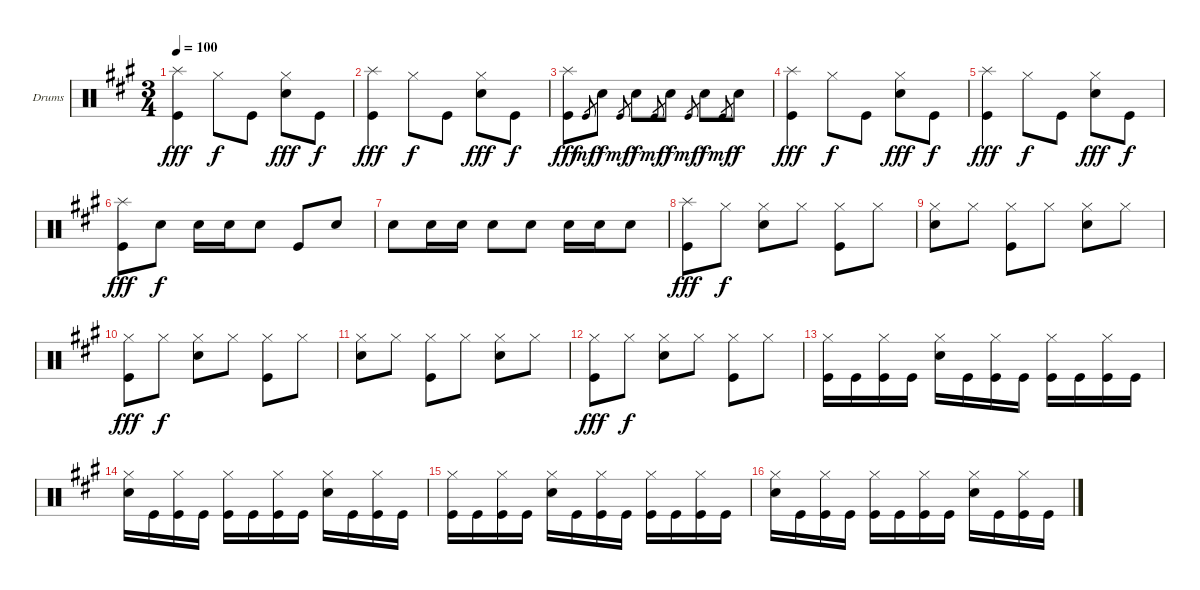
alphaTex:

\bracketExtendMode groupsimilarinstruments
\firstSystemTrackNameOrientation horizontal
\otherSystemsTrackNameOrientation horizontal
\track ("Drumkit" "Drums") {instrument percussion}
\staff {score}
\articulation defaults
\ts (3 4)
\tempo 100
\clef neutral
\scale
1.05801
\ks a
("Splash (hit)" "Kick (hit)").4{dy fff} "Hi-Hat (closed)".8{dy f} "Kick (hit)".8 ("Hi-Hat (closed)" "Snare (hit) 2").8{dy fff} "Kick (hit)".8{dy f} |
\scale
0.941992 ("Splash (hit)" "Kick (hit)").4{dy fff} "Hi-Hat (closed)".8{dy f} "Kick (hit)".8 ("Hi-Hat (closed)" "Snare (hit) 2").8{dy fff} "Kick (hit)".8{dy f} |
\scale
1.05801 ("Splash (hit)" "Kick (hit)").8{dy fff} "Kick (hit)".8{gr dy mf} "Snare (hit) 2".8{dy f} "Kick (hit)".8{gr dy mf} "Snare (hit) 2".8{dy f} "Kick (hit)".8{gr dy mf} "Snare (hit) 2".8{dy f} "Kick (hit)".8{gr dy mf} "Snare (hit) 2".8{dy f} "Kick (hit)".8{gr dy mf} "Snare (hit) 2".8{dy f} |
\scale
0.941992 ("Splash (hit)" "Kick (hit)").4{dy fff} "Hi-Hat (closed)".8{dy f} "Kick (hit)".8 ("Hi-Hat (closed)" "Snare (hit) 2").8{dy fff} "Kick (hit)".8{dy f} |
\scale
1.05801 ("Splash (hit)" "Kick (hit)").4{dy fff} "Hi-Hat (closed)".8{dy f} "Kick (hit)".8 ("Hi-Hat (closed)" "Snare (hit) 2").8{dy fff} "Kick (hit)".8{dy f} |
\scale
0.941992 ("Splash (hit)" "Kick (hit)").8{dy fff} "Snare (hit) 2".8{dy f} "Snare (hit) 2".16 "Snare (hit) 2".16 "Snare (hit) 2".8 "Kick (hit)".8 "Snare (hit) 2".8 |
\scale
1.05801 "Snare (hit) 2".8 "Snare (hit) 2".16 "Snare (hit) 2".16 "Snare (hit) 2".8 "Snare (hit) 2".8 "Snare (hit) 2".16 "Snare (hit) 2".16 "Snare (hit) 2".8 |
\scale
0.941992 ("Splash (hit)" "Kick (hit)").8{dy fff} "Hi-Hat (closed)".8{dy f} ("Hi-Hat (closed)" "Snare (hit) 2").8 "Hi-Hat (closed)".8 ("Hi-Hat (closed)" "Kick (hit)").8 "Hi-Hat (closed)".8 |
\scale
1.05801 ("Hi-Hat (closed)" "Snare (hit) 2").8 "Hi-Hat (closed)".8 ("Hi-Hat (closed)" "Kick (hit)").8 "Hi-Hat (closed)".8 ("Hi-Hat (closed)" "Snare (hit) 2").8 "Hi-Hat (closed)".8 |
\scale
0.941992 ("Hi-Hat (closed)" "Kick (hit)").8{dy fff} "Hi-Hat (closed)".8{dy f} ("Hi-Hat (closed)" "Snare (hit) 2").8 "Hi-Hat (closed)".8 ("Hi-Hat (closed)" "Kick (hit)").8 "Hi-Hat (closed)".8 |
\scale
1.05801 ("Hi-Hat (closed)" "Snare (hit) 2").8 "Hi-Hat (closed)".8 ("Hi-Hat (closed)" "Kick (hit)").8 "Hi-Hat (closed)".8 ("Hi-Hat (closed)" "Snare (hit) 2").8 "Hi-Hat (closed)".8 |
\scale
0.941992 ("Hi-Hat (closed)" "Kick (hit)").8{dy fff} "Hi-Hat (closed)".8{dy f} ("Hi-Hat (closed)" "Snare (hit) 2").8 "Hi-Hat (closed)".8 ("Hi-Hat (closed)" "Kick (hit)").8 "Hi-Hat (closed)".8 |
\scale
1.05801 ("Hi-Hat (closed)" "Kick (hit)").16 "Kick (hit)".16 ("Hi-Hat (closed)" "Kick (hit)").16 "Kick (hit)".16 ("Hi-Hat (closed)" "Snare (hit) 2").16 "Kick (hit)".16 ("Hi-Hat (closed)" "Kick (hit)").16 "Kick (hit)".16 ("Hi-Hat (closed)" "Kick (hit)").16 "Kick (hit)".16 ("Hi-Hat (closed)" "Kick (hit)").16 "Kick (hit)".16 |
\scale
0.941992 ("Hi-Hat (closed)" "Snare (hit) 2").16 "Kick (hit)".16 ("Hi-Hat (closed)" "Kick (hit)").16 "Kick (hit)".16 ("Hi-Hat (closed)" "Kick (hit)").16 "Kick (hit)".16 ("Hi-Hat (closed)" "Kick (hit)").16 "Kick (hit)".16 ("Hi-Hat (closed)" "Snare (hit) 2").16 "Kick (hit)".16 ("Hi-Hat (closed)" "Kick (hit)").16 "Kick (hit)".16 |
\scale
1.05801 ("Hi-Hat (closed)" "Kick (hit)").16 "Kick (hit)".16 ("Hi-Hat (closed)" "Kick (hit)").16 "Kick (hit)".16 ("Hi-Hat (closed)" "Snare (hit) 2").16 "Kick (hit)".16 ("Hi-Hat (closed)" "Kick (hit)").16 "Kick (hit)".16 ("Hi-Hat (closed)" "Kick (hit)").16 "Kick (hit)".16 ("Hi-Hat (closed)" "Kick (hit)").16 "Kick (hit)".16 |
\scale
0.941992 ("Hi-Hat (closed)" "Snare (hit) 2").16 "Kick (hit)".16 ("Hi-Hat (closed)" "Kick (hit)").16 "Kick (hit)".16 ("Hi-Hat (closed)" "Kick (hit)").16 "Kick (hit)".16 ("Hi-Hat (closed)" "Kick (hit)").16 "Kick (hit)".16 ("Hi-Hat (closed)" "Snare (hit) 2").16 "Kick (hit)".16 ("Hi-Hat (closed)" "Kick (hit)").16 "Kick (hit)".16
